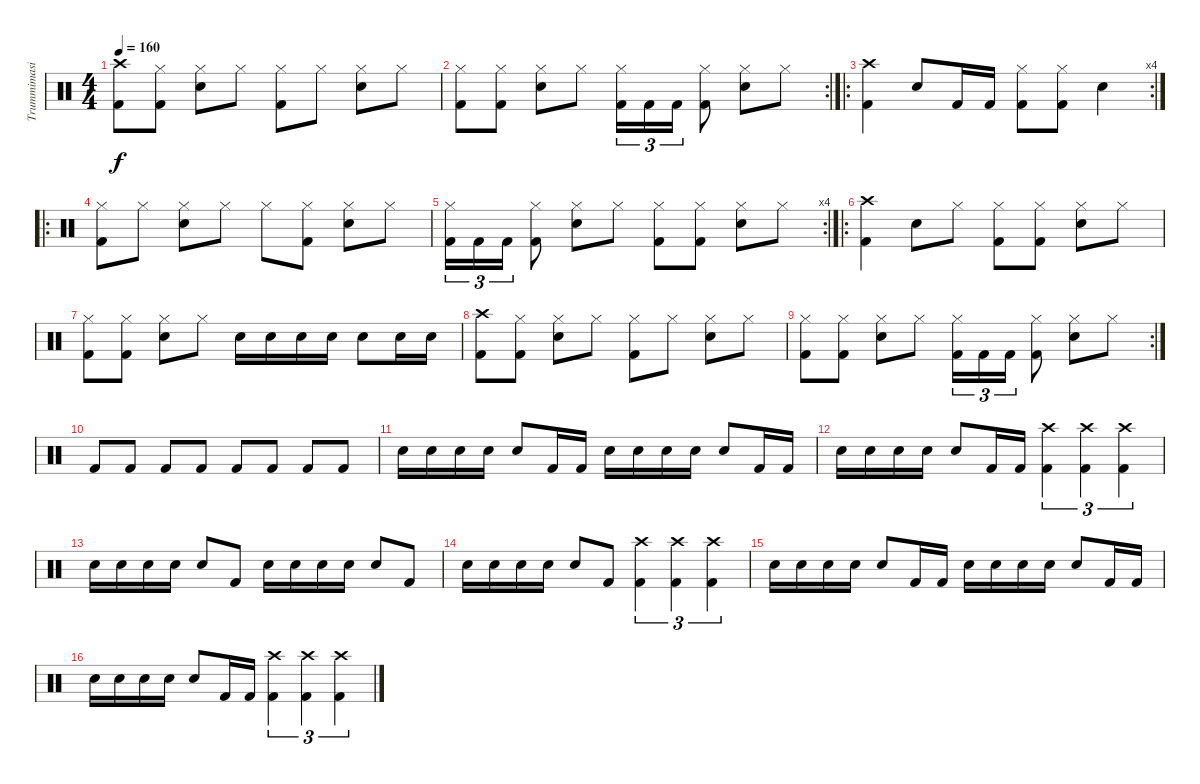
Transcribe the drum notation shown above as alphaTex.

\track ("Trummimasin" "Trummimasi") {instrument percussion}
\staff {score}
\articulation defaults
\ts (4 4)
\tempo 160
\clef neutral
\ks c
("Crash high (hit)" "Kick (hit) 2").8{dy f} ("Hi-Hat (closed)" "Kick (hit) 2").8 ("Hi-Hat (closed)" "Snare (hit) 2").8 "Hi-Hat (closed)".8 ("Hi-Hat (closed)" "Kick (hit) 2").8 "Hi-Hat (closed)".8 ("Hi-Hat (closed)" "Snare (hit) 2").8 "Hi-Hat (closed)".8 |
\rc 2
("Hi-Hat (closed)" "Kick (hit) 2").8 ("Hi-Hat (closed)" "Kick (hit) 2").8 ("Hi-Hat (closed)" "Snare (hit) 2").8 "Hi-Hat (closed)".8 ("Hi-Hat (closed)" "Kick (hit) 2").16{tu (3 2)} "Kick (hit) 2".16{tu (3 2)} "Kick (hit) 2".16{tu (3 2)} ("Hi-Hat (closed)" "Kick (hit) 2").8 ("Hi-Hat (closed)" "Snare (hit) 2").8 "Hi-Hat (closed)".8 |
\ro
\rc 4
("Crash high (hit)" "Kick (hit) 2").4 "Snare (hit) 2".8 "Kick (hit) 2".16 "Kick (hit) 2".16 ("Hi-Hat (closed)" "Kick (hit) 2").8 ("Hi-Hat (closed)" "Kick (hit) 2").8 "Snare (hit) 2".4 |
\ro
("Hi-Hat (closed)" "Kick (hit) 2").8 "Hi-Hat (closed)".8 ("Hi-Hat (closed)" "Snare (hit) 2").8 "Hi-Hat (closed)".8 "Hi-Hat (closed)".8 ("Hi-Hat (closed)" "Kick (hit) 2").8 ("Hi-Hat (closed)" "Snare (hit) 2").8 "Hi-Hat (closed)".8 |
\rc 4
("Hi-Hat (closed)" "Kick (hit) 2").16{tu (3 2)} "Kick (hit) 2".16{tu (3 2)} "Kick (hit) 2".16{tu (3 2)} ("Hi-Hat (closed)" "Kick (hit) 2").8 ("Hi-Hat (closed)" "Snare (hit) 2").8 "Hi-Hat (closed)".8 ("Hi-Hat (closed)" "Kick (hit) 2").8 ("Hi-Hat (closed)" "Kick (hit) 2").8 ("Hi-Hat (closed)" "Snare (hit) 2").8 "Hi-Hat (closed)".8 |
\ro
("Crash high (hit)" "Kick (hit) 2").4 "Snare (hit) 2".8 "Hi-Hat (closed)".8 ("Hi-Hat (closed)" "Kick (hit) 2").8 ("Hi-Hat (closed)" "Kick (hit) 2").8 ("Hi-Hat (closed)" "Snare (hit) 2").8 "Hi-Hat (closed)".8 |
("Hi-Hat (closed)" "Kick (hit) 2").8 ("Hi-Hat (closed)" "Kick (hit) 2").8 ("Hi-Hat (closed)" "Snare (hit) 2").8 "Hi-Hat (closed)".8 "Snare (hit) 2".16 "Snare (hit) 2".16 "Snare (hit) 2".16 "Snare (hit) 2".16 "Snare (hit) 2".8 "Snare (hit) 2".16 "Snare (hit) 2".16 |
("Crash high (hit)" "Kick (hit) 2").8 ("Hi-Hat (closed)" "Kick (hit) 2").8 ("Hi-Hat (closed)" "Snare (hit) 2").8 "Hi-Hat (closed)".8 ("Hi-Hat (closed)" "Kick (hit) 2").8 "Hi-Hat (closed)".8 ("Hi-Hat (closed)" "Snare (hit) 2").8 "Hi-Hat (closed)".8 |
\rc 2
("Hi-Hat (closed)" "Kick (hit) 2").8 ("Hi-Hat (closed)" "Kick (hit) 2").8 ("Hi-Hat (closed)" "Snare (hit) 2").8 "Hi-Hat (closed)".8 ("Hi-Hat (closed)" "Kick (hit) 2").16{tu (3 2)} "Kick (hit) 2".16{tu (3 2)} "Kick (hit) 2".16{tu (3 2)} ("Hi-Hat (closed)" "Kick (hit) 2").8 ("Hi-Hat (closed)" "Snare (hit) 2").8 "Hi-Hat (closed)".8 |
"Kick (hit) 2".8{volume 12} "Kick (hit) 2".8 "Kick (hit) 2".8 "Kick (hit) 2".8 "Kick (hit) 2".8 "Kick (hit) 2".8 "Kick (hit) 2".8 "Kick (hit) 2".8 |
"Snare (hit) 2".16 "Snare (hit) 2".16 "Snare (hit) 2".16 "Snare (hit) 2".16 "Snare (hit) 2".8 "Kick (hit) 2".16 "Kick (hit) 2".16 "Snare (hit) 2".16 "Snare (hit) 2".16 "Snare (hit) 2".16 "Snare (hit) 2".16 "Snare (hit) 2".8 "Kick (hit) 2".16 "Kick (hit) 2".16 |
"Snare (hit) 2".16 "Snare (hit) 2".16 "Snare (hit) 2".16 "Snare (hit) 2".16 "Snare (hit) 2".8 "Kick (hit) 2".16 "Kick (hit) 2".16 ("Crash high (hit)" "Kick (hit) 2").4{tu (3 2)} ("Crash high (hit)" "Kick (hit) 2").4{tu (3 2)} ("Crash high (hit)" "Kick (hit) 2").4{tu (3 2)} |
"Snare (hit) 2".16 "Snare (hit) 2".16 "Snare (hit) 2".16 "Snare (hit) 2".16 "Snare (hit) 2".8 "Kick (hit) 2".8 "Snare (hit) 2".16 "Snare (hit) 2".16 "Snare (hit) 2".16 "Snare (hit) 2".16 "Snare (hit) 2".8 "Kick (hit) 2".8 |
"Snare (hit) 2".16 "Snare (hit) 2".16 "Snare (hit) 2".16 "Snare (hit) 2".16 "Snare (hit) 2".8 "Kick (hit) 2".8 ("Crash high (hit)" "Kick (hit) 2").4{tu (3 2)} ("Crash high (hit)" "Kick (hit) 2").4{tu (3 2)} ("Crash high (hit)" "Kick (hit) 2").4{tu (3 2)} |
"Snare (hit) 2".16 "Snare (hit) 2".16 "Snare (hit) 2".16 "Snare (hit) 2".16 "Snare (hit) 2".8 "Kick (hit) 2".16 "Kick (hit) 2".16 "Snare (hit) 2".16 "Snare (hit) 2".16 "Snare (hit) 2".16 "Snare (hit) 2".16 "Snare (hit) 2".8 "Kick (hit) 2".16 "Kick (hit) 2".16 |
"Snare (hit) 2".16 "Snare (hit) 2".16 "Snare (hit) 2".16 "Snare (hit) 2".16 "Snare (hit) 2".8 "Kick (hit) 2".16 "Kick (hit) 2".16 ("Crash high (hit)" "Kick (hit) 2").4{tu (3 2)} ("Crash high (hit)" "Kick (hit) 2").4{tu (3 2)} ("Crash high (hit)" "Kick (hit) 2").4{tu (3 2)}
